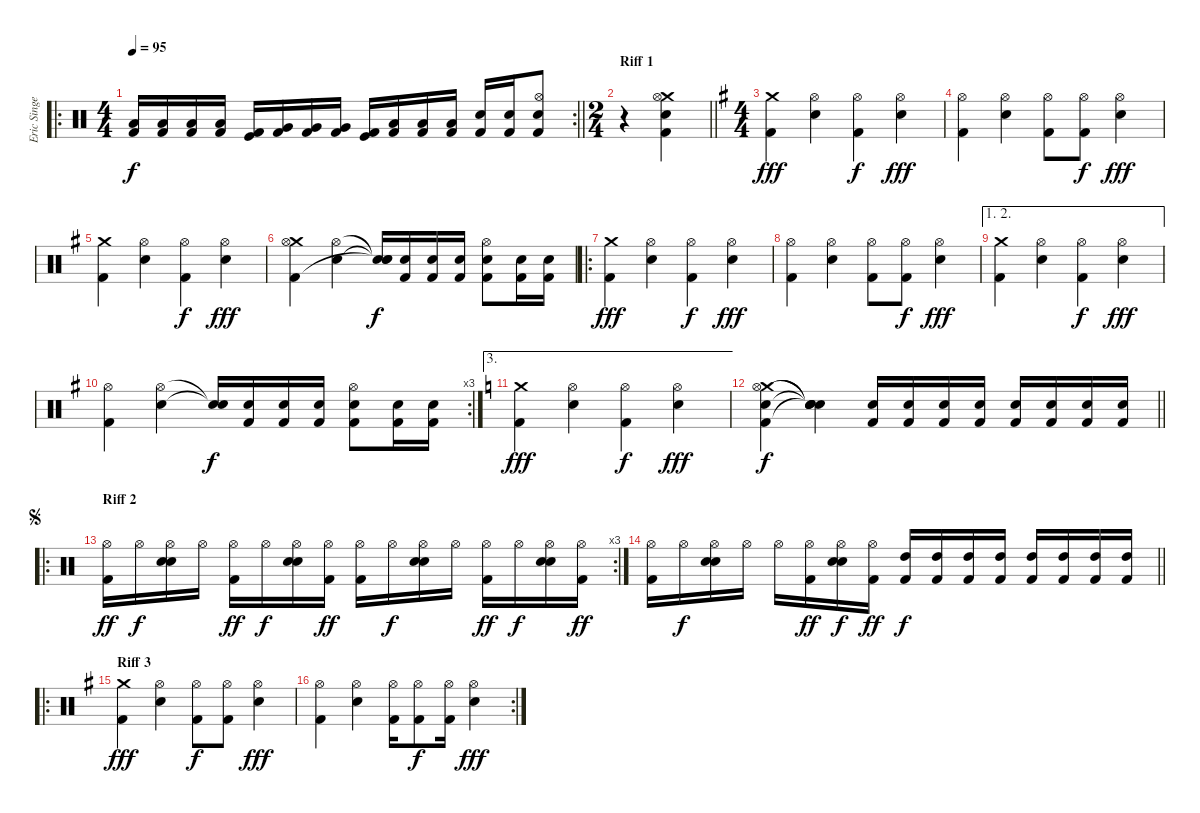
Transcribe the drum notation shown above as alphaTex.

\track ("Eric Singer" "Eric Singe") {instrument percussion}
\staff {score}
\articulation defaults
\ro
\rc 2
\ts (4 4)
\tempo 95
\clef neutral
\barLineRight lightlight
\ks c
("Low Tom (hit)" "Kick (hit) 2").16{dy f} ("Low Tom (hit)" "Kick (hit) 2").16 ("Low Tom (hit)" "Kick (hit) 2").16 ("Low Tom (hit)" "Kick (hit) 2").16 ("Kick (hit)" "Kick (hit) 2").16 ("Very Low Tom (hit)" "Kick (hit) 2").16 ("Very Low Tom (hit)" "Kick (hit) 2").16 ("Very Low Tom (hit)" "Kick (hit) 2").16 ("Kick (hit)" "Kick (hit) 2").16 ("Low Floor Tom (hit)" "Kick (hit) 2").16 ("Low Floor Tom (hit)" "Kick (hit) 2").16 ("Low Floor Tom (hit)" "Kick (hit) 2").16 ("Snare (hit) 2" "Kick (hit) 2").16 ("Snare (hit) 2" "Kick (hit) 2").16 ("Hi-Hat (open)" "Electric Snare (hit)" "Kick (hit) 2").8 |
\ts (2 4)
\section ("" "Riff 1")
\barLineRight lightlight
r.4 ("Crash medium (hit)" "Hi-Hat (open)" "Electric Snare (hit)" "Kick (hit) 2").4 |
\ts (4 4)
\ks eminor
("Crash medium (hit)" "Kick (hit) 2").4{dy fff} ("Hi-Hat (open)" "Electric Snare (hit)").4 ("Hi-Hat (open)" "Kick (hit) 2").4{dy f} ("Hi-Hat (open)" "Electric Snare (hit)").4{dy fff} |
("Hi-Hat (open)" "Kick (hit) 2").4 ("Hi-Hat (open)" "Electric Snare (hit)").4 ("Hi-Hat (open)" "Kick (hit) 2").8 ("Hi-Hat (open)" "Kick (hit) 2").8{dy f} ("Hi-Hat (open)" "Electric Snare (hit)").4{dy fff} |
("Crash medium (hit)" "Kick (hit) 2").4 ("Hi-Hat (open)" "Electric Snare (hit)").4 ("Hi-Hat (open)" "Kick (hit) 2").4{dy f} ("Hi-Hat (open)" "Electric Snare (hit)").4{dy fff} |
("Crash medium (hit)" "Hi-Hat (open)" "Kick (hit) 2").4 ("Hi-Hat (open)" "Electric Snare (hit)").4 ("Snare (hit)"{t} "Snare (hit)"{t} "Snare (hit)"{t}).16{dy f} ("Electric Snare (hit)" "Kick (hit) 2").16 ("Electric Snare (hit)" "Kick (hit) 2").16 ("Electric Snare (hit)" "Kick (hit) 2").16 ("Hi-Hat (open)" "Snare (hit) 2" "Kick (hit) 2").8 ("Snare (hit) 2" "Kick (hit) 2").16 ("Snare (hit) 2" "Kick (hit) 2").16 |
\ro
("Crash medium (hit)" "Kick (hit) 2").4{dy fff} ("Hi-Hat (open)" "Electric Snare (hit)").4 ("Hi-Hat (open)" "Kick (hit) 2").4{dy f} ("Hi-Hat (open)" "Electric Snare (hit)").4{dy fff} |
("Hi-Hat (open)" "Kick (hit) 2").4 ("Hi-Hat (open)" "Electric Snare (hit)").4 ("Hi-Hat (open)" "Kick (hit) 2").8 ("Hi-Hat (open)" "Kick (hit) 2").8{dy f} ("Hi-Hat (open)" "Electric Snare (hit)").4{dy fff} |
\ae (1 2)
("Crash medium (hit)" "Kick (hit) 2").4 ("Hi-Hat (open)" "Electric Snare (hit)").4 ("Hi-Hat (open)" "Kick (hit) 2").4{dy f} ("Hi-Hat (open)" "Electric Snare (hit)").4{dy fff} |
\rc 3
("Hi-Hat (open)" "Kick (hit) 2").4 ("Hi-Hat (open)" "Electric Snare (hit)").4 ("Snare (hit)"{t} "Snare (hit)"{t}).16{dy f} ("Electric Snare (hit)" "Kick (hit) 2").16 ("Electric Snare (hit)" "Kick (hit) 2").16 ("Electric Snare (hit)" "Kick (hit) 2").16 ("Hi-Hat (open)" "Snare (hit) 2" "Kick (hit) 2").8 ("Snare (hit) 2" "Kick (hit) 2").16 ("Snare (hit) 2" "Kick (hit) 2").16 |
\ae 3
\ks c
("Crash medium (hit)" "Kick (hit) 2").4{dy fff} ("Hi-Hat (open)" "Electric Snare (hit)").4 ("Hi-Hat (open)" "Kick (hit) 2").4{dy f} ("Hi-Hat (open)" "Electric Snare (hit)").4{dy fff} |
\barLineRight lightlight
("Crash medium (hit)" "Hi-Hat (open)" "Snare (hit) 2" "Kick (hit) 2").4{dy f} ("Snare (hit)"{t} "Snare (hit)"{t} "Snare (hit)"{t} "Snare (hit)"{t}).4 ("Electric Snare (hit)" "Kick (hit) 2").16 ("Electric Snare (hit)" "Kick (hit) 2").16 ("Electric Snare (hit)" "Kick (hit) 2").16 ("Electric Snare (hit)" "Kick (hit) 2").16 ("Electric Snare (hit)" "Kick (hit) 2").16 ("Electric Snare (hit)" "Kick (hit) 2").16 ("Electric Snare (hit)" "Kick (hit) 2").16 ("Electric Snare (hit)" "Kick (hit) 2").16 |
\ro
\rc 3
\section ("" "Riff 2")
\jump segno
("Hi-Hat (open)" "Kick (hit) 2").16{dy ff} "Hi-Hat (open)".16{dy f} ("Hi-Hat (open)" "Electric Snare (hit)" "Snare (hit) 2").16 "Hi-Hat (open)".16 ("Hi-Hat (open)" "Kick (hit) 2").16{dy ff} "Hi-Hat (open)".16{dy f} ("Hi-Hat (open)" "Electric Snare (hit)" "Snare (hit) 2").16 ("Hi-Hat (open)" "Kick (hit) 2").16{dy ff} ("Hi-Hat (open)" "Kick (hit) 2").16 "Hi-Hat (open)".16{dy f} ("Hi-Hat (open)" "Electric Snare (hit)" "Snare (hit) 2").16 "Hi-Hat (open)".16 ("Hi-Hat (open)" "Kick (hit) 2").16{dy ff} "Hi-Hat (open)".16{dy f} ("Hi-Hat (open)" "Electric Snare (hit)" "Snare (hit) 2").16 ("Hi-Hat (open)" "Kick (hit) 2").16{dy ff} |
\barLineRight lightlight
("Hi-Hat (open)" "Kick (hit) 2").16 "Hi-Hat (open)".16{dy f} ("Hi-Hat (open)" "Electric Snare (hit)" "Snare (hit) 2").16 "Hi-Hat (open)".16 "Hi-Hat (open)".16 ("Hi-Hat (open)" "Kick (hit) 2").16{dy ff} ("Hi-Hat (open)" "Electric Snare (hit)" "Snare (hit) 2").16{dy f} ("Hi-Hat (open)" "Kick (hit) 2").16{dy ff} ("High Tom (hit)" "Kick (hit) 2").16{dy f} ("High Tom (hit)" "Kick (hit) 2").16 ("High Tom (hit)" "Kick (hit) 2").16 ("High Tom (hit)" "Kick (hit) 2").16 ("High Tom (hit)" "Kick (hit) 2").16 ("High Tom (hit)" "Kick (hit) 2").16 ("High Tom (hit)" "Kick (hit) 2").16 ("High Tom (hit)" "Kick (hit) 2").16 |
\ro
\section ("" "Riff 3")
\ks eminor
("Crash medium (hit)" "Kick (hit) 2").4{dy fff} ("Hi-Hat (open)" "Electric Snare (hit)").4 ("Hi-Hat (open)" "Kick (hit) 2").8{dy f} ("Hi-Hat (open)" "Kick (hit) 2").8 ("Hi-Hat (open)" "Electric Snare (hit)").4{dy fff} |
\rc 2
("Hi-Hat (open)" "Kick (hit) 2").4 ("Hi-Hat (open)" "Electric Snare (hit)").4 ("Hi-Hat (open)" "Kick (hit) 2").16 ("Hi-Hat (open)" "Kick (hit) 2").8{dy f} ("Hi-Hat (open)" "Kick (hit) 2").16 ("Hi-Hat (open)" "Electric Snare (hit)").4{dy fff}
